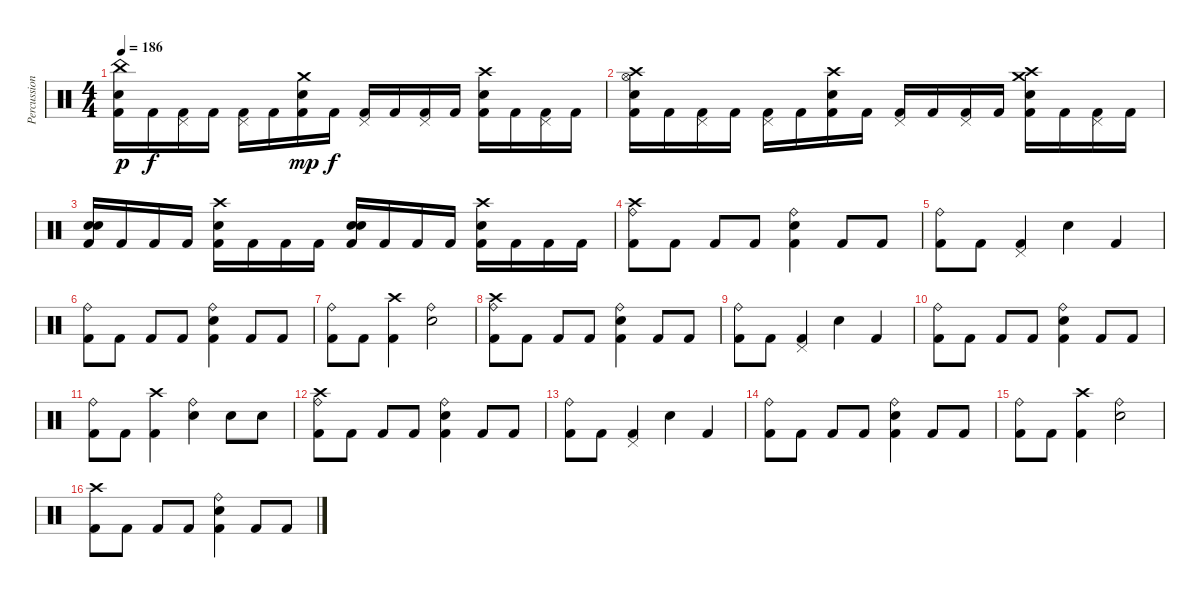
\track ("Percussion" "Percussion") {instrument percussion}
\staff {score}
\articulation defaults
\ts (4 4)
\tempo 186
\clef neutral
\ks c
("China (hit)" "Electric Snare (hit)" "Kick (hit) 2").16{dy p} "Kick (hit) 2".16{dy f} ("Pedal Hi-Hat (hit)" "Kick (hit) 2").16 "Kick (hit) 2".16 ("Pedal Hi-Hat (hit)" "Kick (hit) 2").16 "Kick (hit) 2".16 ("Crash medium (hit)" "Electric Snare (hit)" "Kick (hit) 2").16{dy mp} "Kick (hit) 2".16{dy f} ("Pedal Hi-Hat (hit)" "Kick (hit) 2").16 "Kick (hit) 2".16 ("Pedal Hi-Hat (hit)" "Kick (hit) 2").16 "Kick (hit) 2".16 ("Crash high (hit)" "Electric Snare (hit)" "Kick (hit) 2").16 "Kick (hit) 2".16 ("Pedal Hi-Hat (hit)" "Kick (hit) 2").16 "Kick (hit) 2".16 |
("Hi-Hat (open)" "Crash high (hit)" "Electric Snare (hit)" "Kick (hit) 2").16 "Kick (hit) 2".16 ("Pedal Hi-Hat (hit)" "Kick (hit) 2").16 "Kick (hit) 2".16 ("Pedal Hi-Hat (hit)" "Kick (hit) 2").16 "Kick (hit) 2".16 ("Crash high (hit)" "Electric Snare (hit)" "Kick (hit) 2").16 "Kick (hit) 2".16 ("Pedal Hi-Hat (hit)" "Kick (hit) 2").16 "Kick (hit) 2".16 ("Pedal Hi-Hat (hit)" "Kick (hit) 2").16 "Kick (hit) 2".16 ("Crash medium (hit)" "Crash high (hit)" "Electric Snare (hit)" "Kick (hit) 2").16 "Kick (hit) 2".16 ("Pedal Hi-Hat (hit)" "Kick (hit) 2").16 "Kick (hit) 2".16 |
("Electric Snare (hit)" "Electric Snare (hit)" "Kick (hit) 2").16 "Kick (hit) 2".16 "Kick (hit) 2".16 "Kick (hit) 2".16 ("Crash high (hit)" "Electric Snare (hit)" "Kick (hit) 2").16 "Kick (hit) 2".16 "Kick (hit) 2".16 "Kick (hit) 2".16 ("Electric Snare (hit)" "Electric Snare (hit)" "Kick (hit) 2").16 "Kick (hit) 2".16 "Kick (hit) 2".16 "Kick (hit) 2".16 ("Crash high (hit)" "Electric Snare (hit)" "Kick (hit) 2").16 "Kick (hit) 2".16 "Kick (hit) 2".16 "Kick (hit) 2".16 |
("Crash high (hit)" "Ride (bell)" "Kick (hit) 2").8 "Kick (hit) 2".8 "Kick (hit) 2".8 "Kick (hit) 2".8 ("Ride (bell)" "Electric Snare (hit)" "Kick (hit) 2").4 "Kick (hit) 2".8 "Kick (hit) 2".8 |
("Ride (bell)" "Kick (hit) 2").8 "Kick (hit) 2".8 ("Pedal Hi-Hat (hit)" "Kick (hit) 2").4 "Electric Snare (hit)".4 "Kick (hit) 2".4 |
("Ride (bell)" "Kick (hit) 2").8 "Kick (hit) 2".8 "Kick (hit) 2".8 "Kick (hit) 2".8 ("Ride (bell)" "Electric Snare (hit)" "Kick (hit) 2").4 "Kick (hit) 2".8 "Kick (hit) 2".8 |
("Ride (bell)" "Kick (hit) 2").8 "Kick (hit) 2".8 ("Crash high (hit)" "Kick (hit) 2").4 ("Ride (bell)" "Electric Snare (hit)").2 |
("Crash high (hit)" "Ride (bell)" "Kick (hit) 2").8 "Kick (hit) 2".8 "Kick (hit) 2".8 "Kick (hit) 2".8 ("Ride (bell)" "Electric Snare (hit)" "Kick (hit) 2").4 "Kick (hit) 2".8 "Kick (hit) 2".8 |
("Ride (bell)" "Kick (hit) 2").8 "Kick (hit) 2".8 ("Pedal Hi-Hat (hit)" "Kick (hit) 2").4 "Electric Snare (hit)".4 "Kick (hit) 2".4 |
("Ride (bell)" "Kick (hit) 2").8 "Kick (hit) 2".8 "Kick (hit) 2".8 "Kick (hit) 2".8 ("Ride (bell)" "Electric Snare (hit)" "Kick (hit) 2").4 "Kick (hit) 2".8 "Kick (hit) 2".8 |
("Ride (bell)" "Kick (hit) 2").8 "Kick (hit) 2".8 ("Crash high (hit)" "Kick (hit) 2").4 ("Ride (bell)" "Electric Snare (hit)").4 "Electric Snare (hit)".8 "Electric Snare (hit)".8 |
("Crash high (hit)" "Ride (bell)" "Kick (hit) 2").8 "Kick (hit) 2".8 "Kick (hit) 2".8 "Kick (hit) 2".8 ("Ride (bell)" "Electric Snare (hit)" "Kick (hit) 2").4 "Kick (hit) 2".8 "Kick (hit) 2".8 |
("Ride (bell)" "Kick (hit) 2").8 "Kick (hit) 2".8 ("Pedal Hi-Hat (hit)" "Kick (hit) 2").4 "Electric Snare (hit)".4 "Kick (hit) 2".4 |
("Ride (bell)" "Kick (hit) 2").8 "Kick (hit) 2".8 "Kick (hit) 2".8 "Kick (hit) 2".8 ("Ride (bell)" "Electric Snare (hit)" "Kick (hit) 2").4 "Kick (hit) 2".8 "Kick (hit) 2".8 |
("Ride (bell)" "Kick (hit) 2").8 "Kick (hit) 2".8 ("Crash high (hit)" "Kick (hit) 2").4 ("Ride (bell)" "Electric Snare (hit)").2 |
("Crash high (hit)" "Kick (hit) 2").8 "Kick (hit) 2".8 "Kick (hit) 2".8 "Kick (hit) 2".8 ("Ride (bell)" "Electric Snare (hit)" "Kick (hit) 2").4 "Kick (hit) 2".8 "Kick (hit) 2".8
